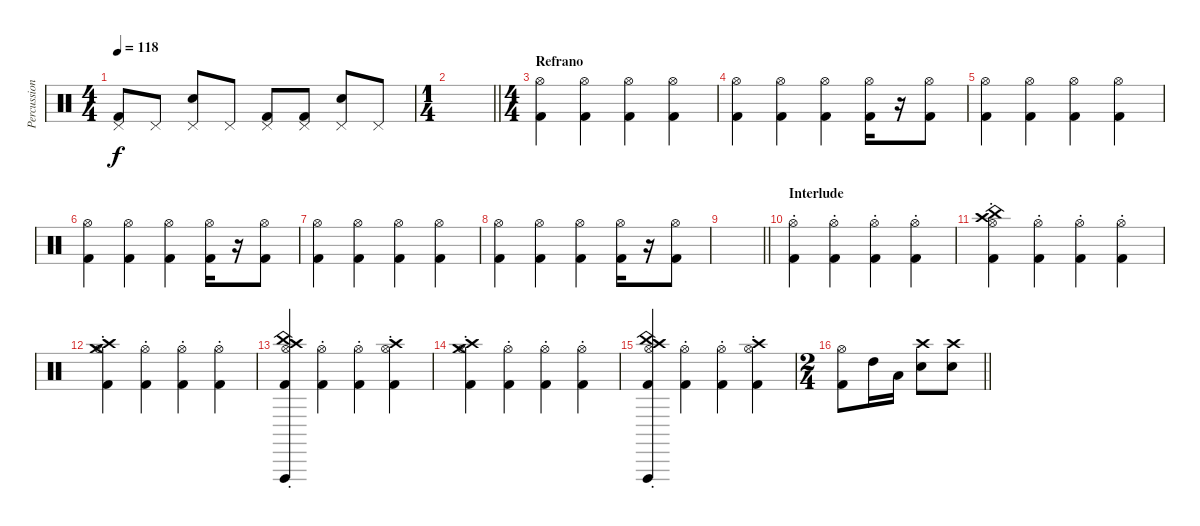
\track ("Percussion" "Percussion") {instrument percussion}
\staff {score}
\articulation defaults
\ts (4 4)
\tempo 118
\clef neutral
\ks c
("Pedal Hi-Hat (hit)" "Kick (hit) 2").8{dy f} "Pedal Hi-Hat (hit)".8 ("Pedal Hi-Hat (hit)" "Electric Snare (hit)").8 "Pedal Hi-Hat (hit)".8 ("Pedal Hi-Hat (hit)" "Kick (hit) 2").8 ("Pedal Hi-Hat (hit)" "Kick (hit) 2").8 ("Pedal Hi-Hat (hit)" "Electric Snare (hit)").8 "Pedal Hi-Hat (hit)".8 |
\ts (1 4)
\barLineRight lightlight
|
\ts (4 4)
\section ("" "Refrano")
("Hi-Hat (open)" "Kick (hit) 2").4 ("Hi-Hat (open)" "Kick (hit) 2").4 ("Hi-Hat (open)" "Kick (hit) 2").4 ("Hi-Hat (open)" "Kick (hit) 2").4 |
("Hi-Hat (open)" "Kick (hit) 2").4 ("Hi-Hat (open)" "Kick (hit) 2").4 ("Hi-Hat (open)" "Kick (hit) 2").4 ("Hi-Hat (open)" "Kick (hit) 2").16 r.16 ("Hi-Hat (open)" "Kick (hit) 2").8 |
("Hi-Hat (open)" "Kick (hit) 2").4 ("Hi-Hat (open)" "Kick (hit) 2").4 ("Hi-Hat (open)" "Kick (hit) 2").4 ("Hi-Hat (open)" "Kick (hit) 2").4 |
("Hi-Hat (open)" "Kick (hit) 2").4 ("Hi-Hat (open)" "Kick (hit) 2").4 ("Hi-Hat (open)" "Kick (hit) 2").4 ("Hi-Hat (open)" "Kick (hit) 2").16 r.16 ("Hi-Hat (open)" "Kick (hit) 2").8 |
("Hi-Hat (open)" "Kick (hit) 2").4 ("Hi-Hat (open)" "Kick (hit) 2").4 ("Hi-Hat (open)" "Kick (hit) 2").4 ("Hi-Hat (open)" "Kick (hit) 2").4 |
("Hi-Hat (open)" "Kick (hit) 2").4 ("Hi-Hat (open)" "Kick (hit) 2").4 ("Hi-Hat (open)" "Kick (hit) 2").4 ("Hi-Hat (open)" "Kick (hit) 2").16 r.16 ("Hi-Hat (open)" "Kick (hit) 2").8 |
\barLineRight lightlight
|
\section ("" "Interlude")
("Hi-Hat (open)"{st} "Kick (hit) 2").4 ("Hi-Hat (open)"{st} "Kick (hit) 2").4 ("Hi-Hat (open)"{st} "Kick (hit) 2").4 ("Hi-Hat (open)"{st} "Kick (hit) 2").4 |
("Hi-Hat (open)"{st} "Kick (hit) 2" "China (hit)" "Crash high (hit)").4 ("Hi-Hat (open)"{st} "Kick (hit) 2").4 ("Hi-Hat (open)"{st} "Kick (hit) 2").4 ("Hi-Hat (open)"{st} "Kick (hit) 2").4 |
("Hi-Hat (open)"{st} "Kick (hit) 2" "Crash medium (hit)" "Crash high (hit)").4 ("Hi-Hat (open)"{st} "Kick (hit) 2").4 ("Hi-Hat (open)"{st} "Kick (hit) 2").4 ("Hi-Hat (open)"{st} "Kick (hit) 2").4 |
("Hi-Hat (open)"{st} "Kick (hit) 2" "China (hit)" "Crash high (hit)" "Vibraslap (hit)").4 ("Hi-Hat (open)"{st} "Kick (hit) 2").4 ("Hi-Hat (open)"{st} "Kick (hit) 2").4 ("Hi-Hat (open)"{st} "Kick (hit) 2" "Crash high (hit)").4 |
("Hi-Hat (open)"{st} "Kick (hit) 2" "Crash medium (hit)" "Crash high (hit)").4 ("Hi-Hat (open)"{st} "Kick (hit) 2").4 ("Hi-Hat (open)"{st} "Kick (hit) 2").4 ("Hi-Hat (open)"{st} "Kick (hit) 2").4 |
("Hi-Hat (open)"{st} "Kick (hit) 2" "China (hit)" "Crash high (hit)" "Vibraslap (hit)").4 ("Hi-Hat (open)"{st} "Kick (hit) 2").4 ("Hi-Hat (open)"{st} "Kick (hit) 2").4 ("Hi-Hat (open)"{st} "Kick (hit) 2" "Crash high (hit)").4 |
\ts (2 4)
\barLineRight lightlight
("Hi-Hat (open)" "Kick (hit) 2").8 "High Tom (hit)".16 "Low Tom (hit)".16 ("Crash high (hit)" "Snare (hit) 2").8 ("Crash high (hit)" "Snare (hit) 2").8
